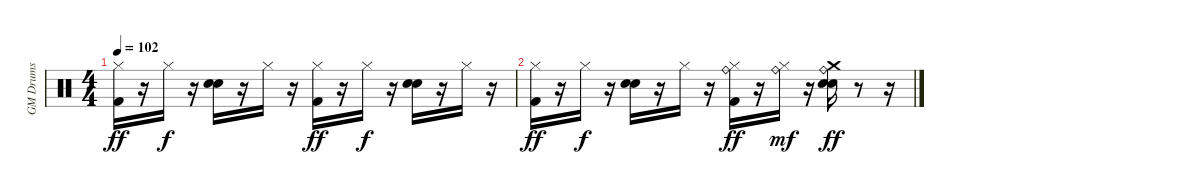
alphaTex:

\track ("GM Drums" "GM Drums") {instrument percussion}
\staff {score}
\articulation defaults
\ts (4 4)
\tempo 102
\clef neutral
\ks c
("Kick (hit) 2" "Hi-Hat (closed)").16{dy ff} r.16 "Hi-Hat (closed)".16{dy f} r.16 ("Metronome (bell)" "Hand Clap (hit)").16 r.16 "Hi-Hat (closed)".16 r.16 ("Kick (hit) 2" "Hi-Hat (closed)").16{dy ff} r.16 "Hi-Hat (closed)".16{dy f} r.16 ("Metronome (bell)" "Hand Clap (hit)").16 r.16 "Hi-Hat (closed)".16 r.16 |
("Kick (hit) 2" "Hi-Hat (closed)").16{dy ff} r.16 "Hi-Hat (closed)".16{dy f} r.16 ("Metronome (bell)" "Hand Clap (hit)").16 r.16 "Hi-Hat (closed)".16 r.16 ("Kick (hit) 2" "Hi-Hat (closed)" "Ride (bell)").16{dy ff} r.16 ("Hi-Hat (closed)" "Ride (bell)").16{dy mf} r.16 ("Metronome (bell)" "Hand Clap (hit)" "Ride (bell)" "Crash medium (hit)").16{dy ff} r.8 r.16
